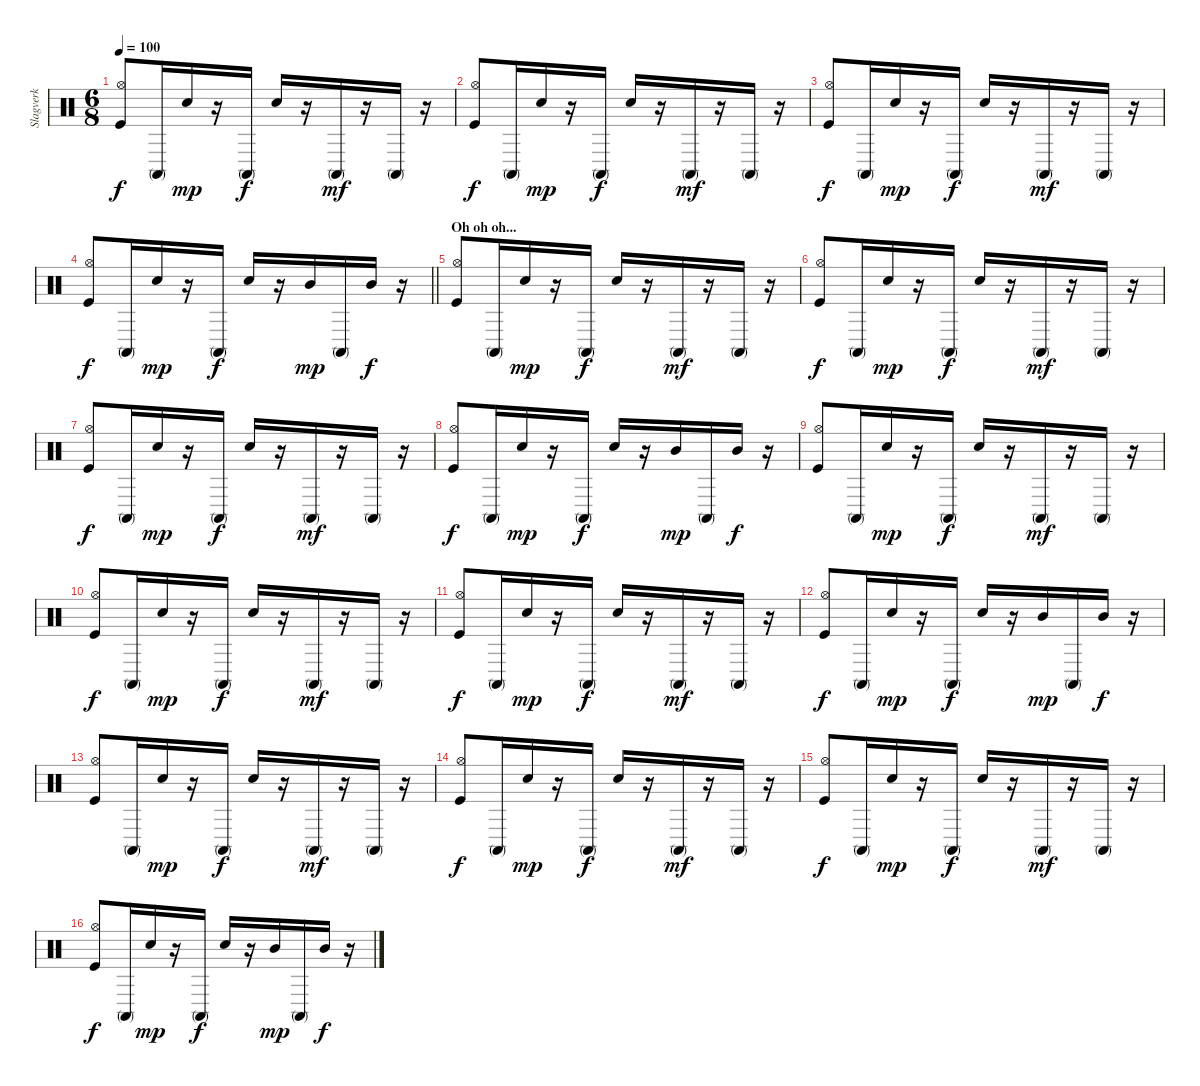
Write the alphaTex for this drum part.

\track ("Slagverk" "Slagverk") {instrument percussion}
\staff {score}
\articulation defaults
\ts (6 8)
\tempo 100
\clef neutral
\ks c
("Hi-Hat (open)" "Kick (hit)").8{dy f} "Conga high (mute)".16 "Snare (hit) 2".16{dy mp} r.16 "Conga high (mute)".16{dy f} "Snare (hit) 2".16 r.16 "Conga high (mute)".16{dy mf} r.16 "Conga high (mute)".16 r.16 |
("Hi-Hat (open)" "Kick (hit)").8{dy f} "Conga high (mute)".16 "Snare (hit) 2".16{dy mp} r.16 "Conga high (mute)".16{dy f} "Snare (hit) 2".16 r.16 "Conga high (mute)".16{dy mf} r.16 "Conga high (mute)".16 r.16 |
("Hi-Hat (open)" "Kick (hit)").8{dy f} "Conga high (mute)".16 "Snare (hit) 2".16{dy mp} r.16 "Conga high (mute)".16{dy f} "Snare (hit) 2".16 r.16 "Conga high (mute)".16{dy mf} r.16 "Conga high (mute)".16 r.16 |
\barLineRight lightlight
("Hi-Hat (open)" "Kick (hit)").8{dy f} "Conga high (mute)".16 "Snare (hit) 2".16{dy mp} r.16 "Conga high (mute)".16{dy f} "Snare (hit) 2".16 r.16 "Mid Tom (hit)".16{dy mp} "Conga high (mute)".16 "Mid Tom (hit)".16{dy f} r.16 |
\section ("" "Oh oh oh...")
("Hi-Hat (open)" "Kick (hit)").8 "Conga high (mute)".16 "Snare (hit) 2".16{dy mp} r.16 "Conga high (mute)".16{dy f} "Snare (hit) 2".16 r.16 "Conga high (mute)".16{dy mf} r.16 "Conga high (mute)".16 r.16 |
("Hi-Hat (open)" "Kick (hit)").8{dy f} "Conga high (mute)".16 "Snare (hit) 2".16{dy mp} r.16 "Conga high (mute)".16{dy f} "Snare (hit) 2".16 r.16 "Conga high (mute)".16{dy mf} r.16 "Conga high (mute)".16 r.16 |
("Hi-Hat (open)" "Kick (hit)").8{dy f} "Conga high (mute)".16 "Snare (hit) 2".16{dy mp} r.16 "Conga high (mute)".16{dy f} "Snare (hit) 2".16 r.16 "Conga high (mute)".16{dy mf} r.16 "Conga high (mute)".16 r.16 |
("Hi-Hat (open)" "Kick (hit)").8{dy f} "Conga high (mute)".16 "Snare (hit) 2".16{dy mp} r.16 "Conga high (mute)".16{dy f} "Snare (hit) 2".16 r.16 "Mid Tom (hit)".16{dy mp} "Conga high (mute)".16 "Mid Tom (hit)".16{dy f} r.16 |
("Hi-Hat (open)" "Kick (hit)").8 "Conga high (mute)".16 "Snare (hit) 2".16{dy mp} r.16 "Conga high (mute)".16{dy f} "Snare (hit) 2".16 r.16 "Conga high (mute)".16{dy mf} r.16 "Conga high (mute)".16 r.16 |
("Hi-Hat (open)" "Kick (hit)").8{dy f} "Conga high (mute)".16 "Snare (hit) 2".16{dy mp} r.16 "Conga high (mute)".16{dy f} "Snare (hit) 2".16 r.16 "Conga high (mute)".16{dy mf} r.16 "Conga high (mute)".16 r.16 |
("Hi-Hat (open)" "Kick (hit)").8{dy f} "Conga high (mute)".16 "Snare (hit) 2".16{dy mp} r.16 "Conga high (mute)".16{dy f} "Snare (hit) 2".16 r.16 "Conga high (mute)".16{dy mf} r.16 "Conga high (mute)".16 r.16 |
("Hi-Hat (open)" "Kick (hit)").8{dy f} "Conga high (mute)".16 "Snare (hit) 2".16{dy mp} r.16 "Conga high (mute)".16{dy f} "Snare (hit) 2".16 r.16 "Mid Tom (hit)".16{dy mp} "Conga high (mute)".16 "Mid Tom (hit)".16{dy f} r.16 |
("Hi-Hat (open)" "Kick (hit)").8 "Conga high (mute)".16 "Snare (hit) 2".16{dy mp} r.16 "Conga high (mute)".16{dy f} "Snare (hit) 2".16 r.16 "Conga high (mute)".16{dy mf} r.16 "Conga high (mute)".16 r.16 |
("Hi-Hat (open)" "Kick (hit)").8{dy f} "Conga high (mute)".16 "Snare (hit) 2".16{dy mp} r.16 "Conga high (mute)".16{dy f} "Snare (hit) 2".16 r.16 "Conga high (mute)".16{dy mf} r.16 "Conga high (mute)".16 r.16 |
("Hi-Hat (open)" "Kick (hit)").8{dy f} "Conga high (mute)".16 "Snare (hit) 2".16{dy mp} r.16 "Conga high (mute)".16{dy f} "Snare (hit) 2".16 r.16 "Conga high (mute)".16{dy mf} r.16 "Conga high (mute)".16 r.16 |
("Hi-Hat (open)" "Kick (hit)").8{dy f} "Conga high (mute)".16 "Snare (hit) 2".16{dy mp} r.16 "Conga high (mute)".16{dy f} "Snare (hit) 2".16 r.16 "Mid Tom (hit)".16{dy mp} "Conga high (mute)".16 "Mid Tom (hit)".16{dy f} r.16
